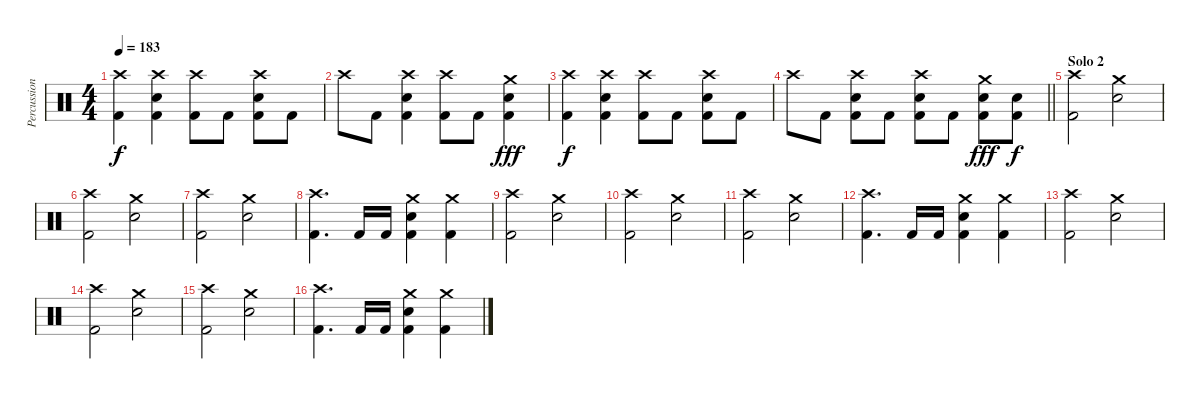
\track ("Percussion" "Percussion") {instrument percussion}
\staff {score}
\articulation defaults
\ts (4 4)
\tempo 183
\clef neutral
\ks aminor
("Crash high (hit)" "Kick (hit) 2").4{dy f} ("Crash high (hit)" "Electric Snare (hit)" "Kick (hit) 2").4 ("Crash high (hit)" "Kick (hit) 2").8 "Kick (hit) 2".8 ("Crash high (hit)" "Electric Snare (hit)" "Kick (hit) 2").8 "Kick (hit) 2".8 |
"Crash high (hit)".8 "Kick (hit) 2".8 ("Crash high (hit)" "Electric Snare (hit)" "Kick (hit) 2").4 ("Crash high (hit)" "Kick (hit) 2").8 "Kick (hit) 2".8 ("Crash medium (hit)" "Electric Snare (hit)" "Kick (hit) 2").4{dy fff} |
("Crash high (hit)" "Kick (hit) 2").4{dy f} ("Crash high (hit)" "Electric Snare (hit)" "Kick (hit) 2").4 ("Crash high (hit)" "Kick (hit) 2").8 "Kick (hit) 2".8 ("Crash high (hit)" "Electric Snare (hit)" "Kick (hit) 2").8 "Kick (hit) 2".8 |
\barLineRight lightlight "Crash high (hit)".8 "Kick (hit) 2".8
("Crash high (hit)" "Electric Snare (hit)" "Kick (hit) 2").8 "Kick (hit) 2".8 ("Crash high (hit)" "Electric Snare (hit)" "Kick (hit) 2").8 "Kick (hit) 2".8 ("Crash medium (hit)" "Electric Snare (hit)" "Kick (hit) 2").8{dy fff} ("Electric Snare (hit)" "Kick (hit) 2").8{dy f} |
\section ("" "Solo 2")
\ks c
("Crash high (hit)" "Kick (hit) 2").2 ("Crash medium (hit)" "Electric Snare (hit)").2 |
("Crash high (hit)" "Kick (hit) 2").2 ("Crash medium (hit)" "Electric Snare (hit)").2 |
("Crash high (hit)" "Kick (hit) 2").2 ("Crash medium (hit)" "Electric Snare (hit)").2 |
("Crash high (hit)" "Kick (hit) 2").4{d} "Kick (hit) 2".16 "Kick (hit) 2".16 ("Crash medium (hit)" "Electric Snare (hit)" "Kick (hit) 2").4 ("Crash medium (hit)" "Kick (hit) 2").4 |
("Crash high (hit)" "Kick (hit) 2").2 ("Crash medium (hit)" "Electric Snare (hit)").2 |
("Crash high (hit)" "Kick (hit) 2").2 ("Crash medium (hit)" "Electric Snare (hit)").2 |
("Crash high (hit)" "Kick (hit) 2").2 ("Crash medium (hit)" "Electric Snare (hit)").2 |
("Crash high (hit)" "Kick (hit) 2").4{d} "Kick (hit) 2".16 "Kick (hit) 2".16 ("Crash medium (hit)" "Electric Snare (hit)" "Kick (hit) 2").4 ("Crash medium (hit)" "Kick (hit) 2").4 |
("Crash high (hit)" "Kick (hit) 2").2 ("Crash medium (hit)" "Electric Snare (hit)").2 |
("Crash high (hit)" "Kick (hit) 2").2 ("Crash medium (hit)" "Electric Snare (hit)").2 |
("Crash high (hit)" "Kick (hit) 2").2 ("Crash medium (hit)" "Electric Snare (hit)").2 |
("Crash high (hit)" "Kick (hit) 2").4{d} "Kick (hit) 2".16 "Kick (hit) 2".16 ("Crash medium (hit)" "Electric Snare (hit)" "Kick (hit) 2").4 ("Crash medium (hit)" "Kick (hit) 2").4
